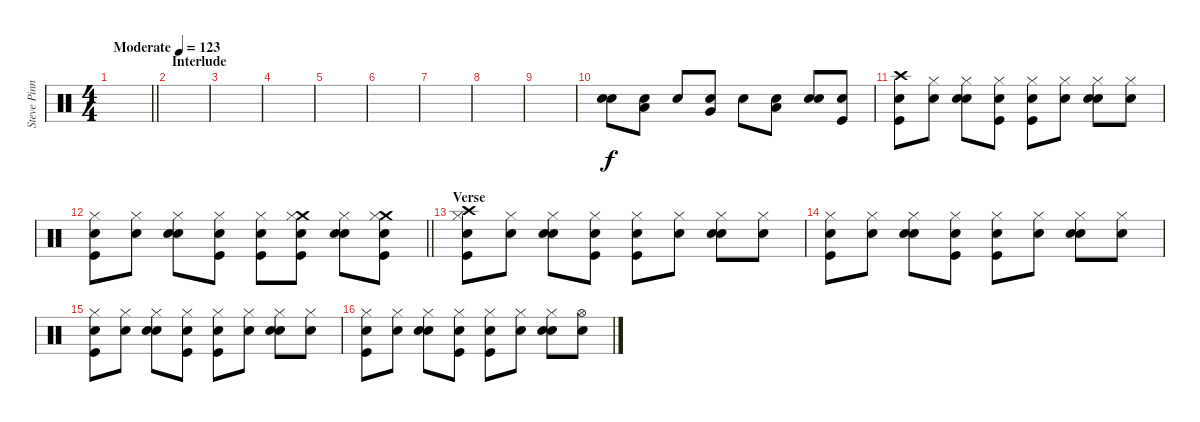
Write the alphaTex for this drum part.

\track ("Steve Pinnell - Drums" "Steve Pinn") {instrument percussion}
\staff {score}
\articulation defaults
\ts (4 4)
\tempo (123 "Moderate")
\clef neutral
\barLineRight lightlight
\ks c
|
\section ("" "Interlude")
|
|
|
|
|
|
|
|
("Metronome (bell)" "Snare (hit)").8{volume 16 balance 8} ("Low Tom (hit)" "Snare (hit)").8 "Snare (hit)".8 ("Very Low Tom (hit)" "Snare (hit)").8 "Snare (hit)".8 ("Low Floor Tom (hit)" "Snare (hit)").8 ("Metronome (bell)" "Snare (hit)").8 ("Kick (hit)" "Snare (hit)").8 |
("Crash high (hit)" "Kick (hit)" "Snare (hit)").8 ("Hi-Hat (closed)" "Snare (hit)").8 ("Metronome (bell)" "Hi-Hat (closed)" "Snare (hit)").8 ("Kick (hit)" "Hi-Hat (closed)" "Snare (hit)").8 ("Kick (hit)" "Hi-Hat (closed)" "Snare (hit)").8 ("Hi-Hat (closed)" "Snare (hit)").8 ("Metronome (bell)" "Hi-Hat (closed)" "Snare (hit)").8 ("Hi-Hat (closed)" "Snare (hit)").8 |
\barLineRight lightlight
("Kick (hit)" "Hi-Hat (closed)" "Snare (hit)").8 ("Hi-Hat (closed)" "Snare (hit)").8 ("Metronome (bell)" "Hi-Hat (closed)" "Snare (hit)").8 ("Kick (hit)" "Hi-Hat (closed)" "Snare (hit)").8 ("Kick (hit)" "Hi-Hat (closed)" "Snare (hit)").8 ("Kick (hit)" "Crash medium (hit)" "Hi-Hat (closed)" "Snare (hit)").8 ("Metronome (bell)" "Hi-Hat (closed)" "Snare (hit)").8 ("Kick (hit)" "Crash medium (hit)" "Hi-Hat (closed)" "Snare (hit)").8 |
\section ("" "Verse")
("Crash high (hit)" "Kick (hit)" "Hi-Hat (closed)" "Snare (hit)").8 ("Hi-Hat (closed)" "Snare (hit)").8 ("Metronome (bell)" "Hi-Hat (closed)" "Snare (hit)").8 ("Kick (hit)" "Hi-Hat (closed)" "Snare (hit)").8 ("Kick (hit)" "Hi-Hat (closed)" "Snare (hit)").8 ("Hi-Hat (closed)" "Snare (hit)").8 ("Metronome (bell)" "Hi-Hat (closed)" "Snare (hit)").8 ("Hi-Hat (closed)" "Snare (hit)").8 |
("Kick (hit)" "Hi-Hat (closed)" "Snare (hit)").8 ("Hi-Hat (closed)" "Snare (hit)").8 ("Metronome (bell)" "Hi-Hat (closed)" "Snare (hit)").8 ("Kick (hit)" "Hi-Hat (closed)" "Snare (hit)").8 ("Kick (hit)" "Hi-Hat (closed)" "Snare (hit)").8 ("Hi-Hat (closed)" "Snare (hit)").8 ("Metronome (bell)" "Hi-Hat (closed)" "Snare (hit)").8 ("Hi-Hat (closed)" "Snare (hit)").8 |
("Kick (hit)" "Hi-Hat (closed)" "Snare (hit)").8 ("Hi-Hat (closed)" "Snare (hit)").8 ("Metronome (bell)" "Hi-Hat (closed)" "Snare (hit)").8 ("Kick (hit)" "Hi-Hat (closed)" "Snare (hit)").8 ("Kick (hit)" "Hi-Hat (closed)" "Snare (hit)").8 ("Hi-Hat (closed)" "Snare (hit)").8 ("Metronome (bell)" "Hi-Hat (closed)" "Snare (hit)").8 ("Hi-Hat (closed)" "Snare (hit)").8 |
("Kick (hit)" "Hi-Hat (closed)" "Snare (hit)").8 ("Hi-Hat (closed)" "Snare (hit)").8 ("Metronome (bell)" "Hi-Hat (closed)" "Snare (hit)").8 ("Kick (hit)" "Hi-Hat (closed)" "Snare (hit)").8 ("Kick (hit)" "Hi-Hat (closed)" "Snare (hit)").8 ("Hi-Hat (closed)" "Snare (hit)").8 ("Metronome (bell)" "Hi-Hat (closed)" "Snare (hit)").8 ("Hi-Hat (open)" "Snare (hit)").8
